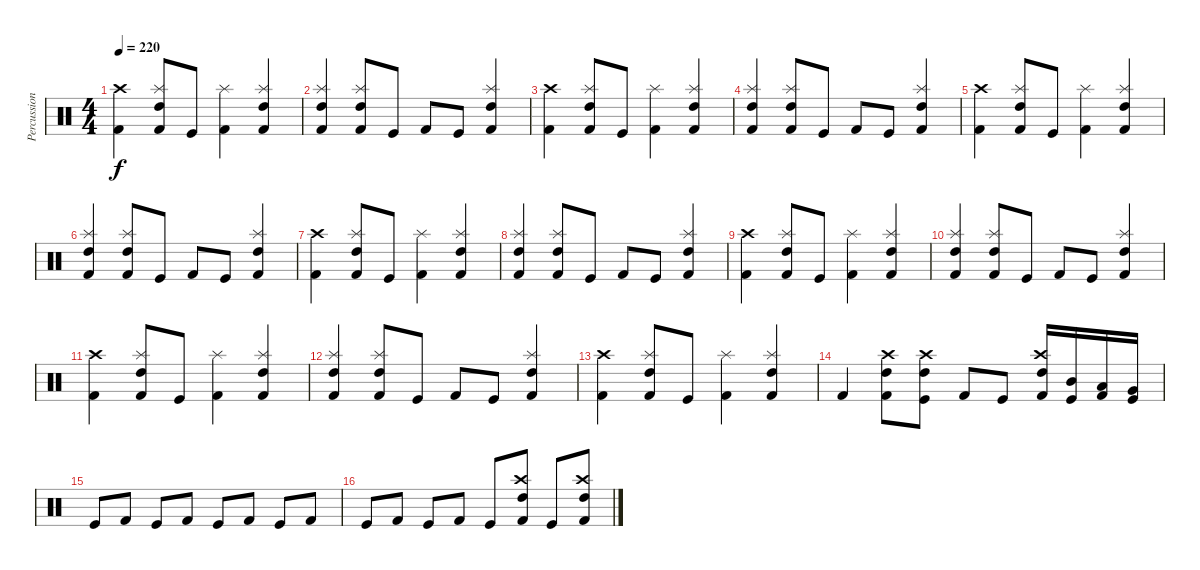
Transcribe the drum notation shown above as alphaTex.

\track ("Percussions" "Percussion") {instrument percussion}
\staff {score}
\articulation defaults
\ts (4 4)
\tempo 220
\clef neutral
\ks c
("Kick (hit) 2" "Crash high (hit)").4{dy f} ("Kick (hit) 2" "Splash (hit)" "High Tom (hit)").8 "Kick (hit)".8 ("Kick (hit) 2" "Splash (hit)").4 ("Kick (hit) 2" "Splash (hit)" "High Tom (hit)").4 |
("Kick (hit) 2" "Splash (hit)" "High Tom (hit)").4 ("Kick (hit) 2" "Splash (hit)" "High Tom (hit)").8 "Kick (hit)".8 "Kick (hit) 2".8 "Kick (hit)".8 ("Kick (hit) 2" "Splash (hit)" "High Tom (hit)").4 |
("Kick (hit) 2" "Crash high (hit)").4 ("Kick (hit) 2" "Splash (hit)" "High Tom (hit)").8 "Kick (hit)".8 ("Kick (hit) 2" "Splash (hit)").4 ("Kick (hit) 2" "Splash (hit)" "High Tom (hit)").4 |
("Kick (hit) 2" "Splash (hit)" "High Tom (hit)").4 ("Kick (hit) 2" "Splash (hit)" "High Tom (hit)").8 "Kick (hit)".8 "Kick (hit) 2".8 "Kick (hit)".8 ("Kick (hit) 2" "Splash (hit)" "High Tom (hit)").4 |
("Kick (hit) 2" "Crash high (hit)").4 ("Kick (hit) 2" "Splash (hit)" "High Tom (hit)").8 "Kick (hit)".8 ("Kick (hit) 2" "Splash (hit)").4 ("Kick (hit) 2" "Splash (hit)" "High Tom (hit)").4 |
("Kick (hit) 2" "Splash (hit)" "High Tom (hit)").4 ("Kick (hit) 2" "Splash (hit)" "High Tom (hit)").8 "Kick (hit)".8 "Kick (hit) 2".8 "Kick (hit)".8 ("Kick (hit) 2" "Splash (hit)" "High Tom (hit)").4 |
("Kick (hit) 2" "Crash high (hit)").4 ("Kick (hit) 2" "Splash (hit)" "High Tom (hit)").8 "Kick (hit)".8 ("Kick (hit) 2" "Splash (hit)").4 ("Kick (hit) 2" "Splash (hit)" "High Tom (hit)").4 |
("Kick (hit) 2" "Splash (hit)" "High Tom (hit)").4 ("Kick (hit) 2" "Splash (hit)" "High Tom (hit)").8 "Kick (hit)".8 "Kick (hit) 2".8 "Kick (hit)".8 ("Kick (hit) 2" "Splash (hit)" "High Tom (hit)").4 |
("Kick (hit) 2" "Crash high (hit)").4 ("Kick (hit) 2" "Splash (hit)" "High Tom (hit)").8 "Kick (hit)".8 ("Kick (hit) 2" "Splash (hit)").4 ("Kick (hit) 2" "Splash (hit)" "High Tom (hit)").4 |
("Kick (hit) 2" "Splash (hit)" "High Tom (hit)").4 ("Kick (hit) 2" "Splash (hit)" "High Tom (hit)").8 "Kick (hit)".8 "Kick (hit) 2".8 "Kick (hit)".8 ("Kick (hit) 2" "Splash (hit)" "High Tom (hit)").4 |
("Kick (hit) 2" "Crash high (hit)").4 ("Kick (hit) 2" "Splash (hit)" "High Tom (hit)").8 "Kick (hit)".8 ("Kick (hit) 2" "Splash (hit)").4 ("Kick (hit) 2" "Splash (hit)" "High Tom (hit)").4 |
("Kick (hit) 2" "Splash (hit)" "High Tom (hit)").4 ("Kick (hit) 2" "Splash (hit)" "High Tom (hit)").8 "Kick (hit)".8 "Kick (hit) 2".8 "Kick (hit)".8 ("Kick (hit) 2" "Splash (hit)" "High Tom (hit)").4 |
("Kick (hit) 2" "Crash high (hit)").4 ("Kick (hit) 2" "Splash (hit)" "High Tom (hit)").8 "Kick (hit)".8 ("Kick (hit) 2" "Splash (hit)").4 ("Kick (hit) 2" "Splash (hit)" "High Tom (hit)").4 |
"Kick (hit) 2".4 ("Kick (hit) 2" "Crash high (hit)" "High Tom (hit)").8 ("Kick (hit)" "Crash high (hit)" "High Tom (hit)").8 "Kick (hit) 2".8 "Kick (hit)".8 ("Kick (hit) 2" "High Tom (hit)" "Crash high (hit)").16 ("Kick (hit)" "Mid Tom (hit)").16 ("Kick (hit) 2" "Low Tom (hit)").16 ("Kick (hit)" "Very Low Tom (hit)").16 |
"Kick (hit)".8 "Kick (hit) 2".8 "Kick (hit)".8 "Kick (hit) 2".8 "Kick (hit)".8 "Kick (hit) 2".8 "Kick (hit)".8 "Kick (hit) 2".8 |
"Kick (hit)".8 "Kick (hit) 2".8 "Kick (hit)".8 "Kick (hit) 2".8 "Kick (hit)".8 ("Kick (hit) 2" "Crash high (hit)" "High Tom (hit)").8 "Kick (hit)".8 ("Kick (hit) 2" "Crash high (hit)" "High Tom (hit)").8
